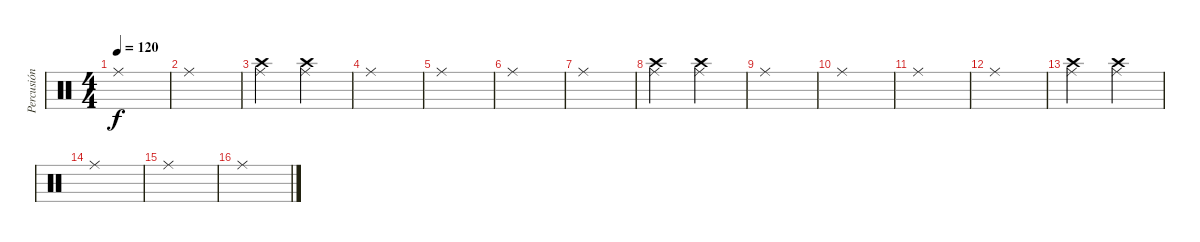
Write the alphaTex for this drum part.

\track ("Percusión" "Percusión") {instrument percussion}
\staff {score}
\articulation defaults
\ts (4 4)
\tempo 120
\clef neutral
\ks c "Ride (middle)".1{dy f}
|
"Ride (middle)".1 |
("Crash high (hit)" "Ride (middle)").2 ("Crash high (hit)" "Ride (middle)").2 |
"Ride (middle)".1 |
"Ride (middle)".1 |
"Ride (middle)".1 |
"Ride (middle)".1 |
("Crash high (hit)" "Ride (middle)").2 ("Crash high (hit)" "Ride (middle)").2 |
"Ride (middle)".1 |
"Ride (middle)".1 |
"Ride (middle)".1 |
"Ride (middle)".1 |
("Crash high (hit)" "Ride (middle)").2 ("Crash high (hit)" "Ride (middle)").2 |
"Ride (middle)".1 |
"Ride (middle)".1 |
"Ride (middle)".1
